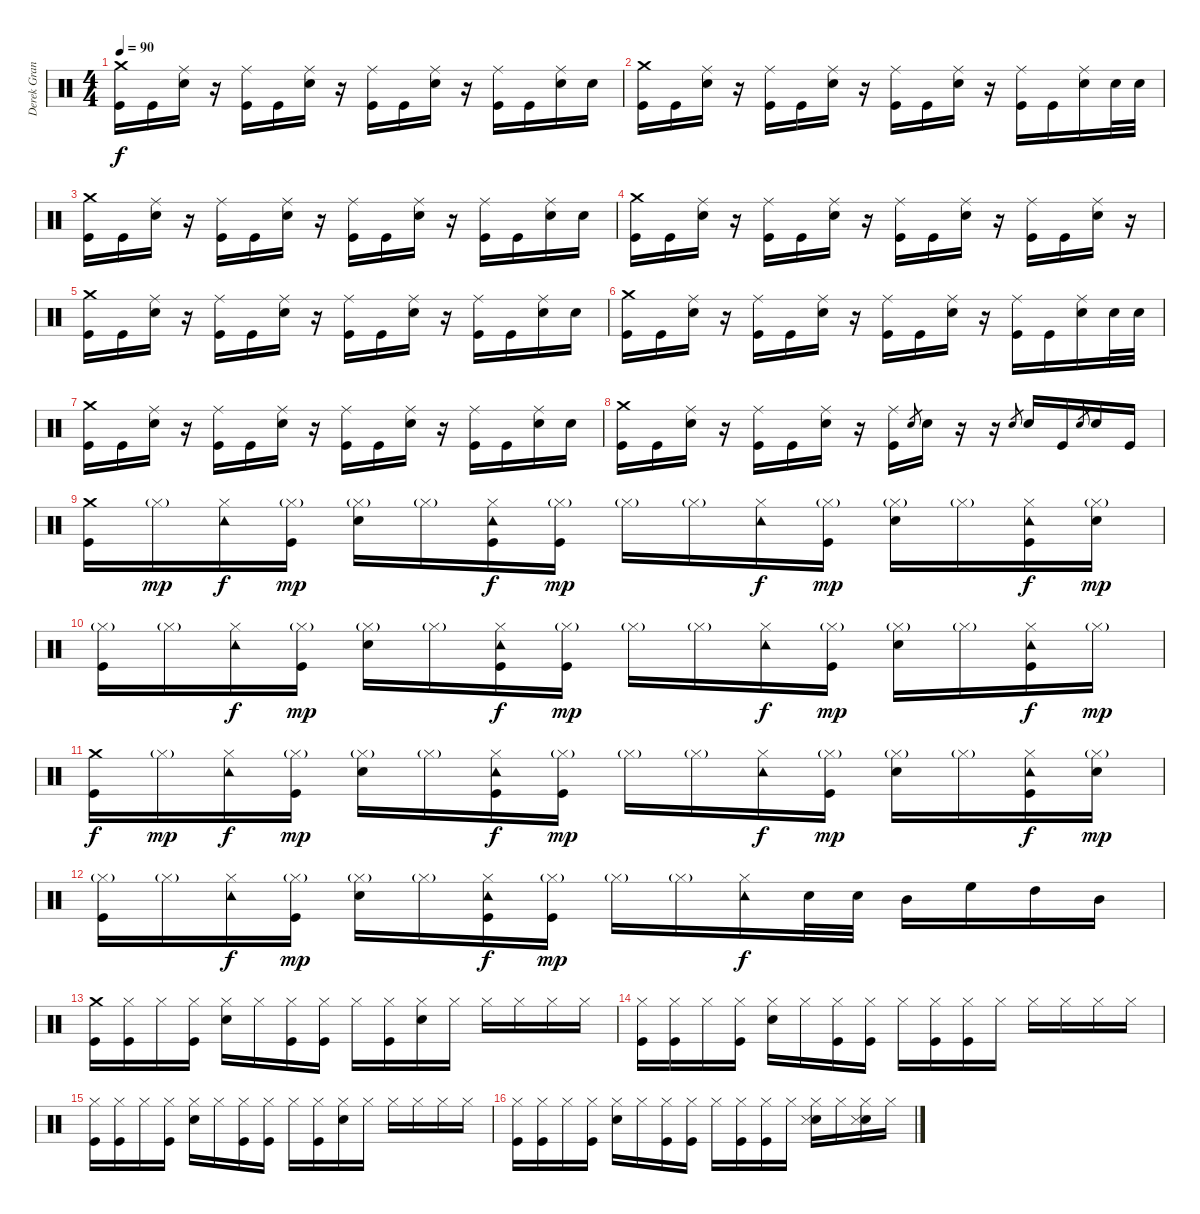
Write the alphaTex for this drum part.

\track ("Derek Grant" "Derek Gran") {instrument percussion}
\staff {score}
\articulation defaults
\ts (4 4)
\tempo 90
\clef neutral
\ks c
("Crash medium (hit)" "Kick (hit)").16{dy f} "Kick (hit)".16 ("Ride (middle)" "Electric Snare (hit)").16 r.16 ("Ride (middle)" "Kick (hit)").16 "Kick (hit)".16 ("Ride (middle)" "Electric Snare (hit)").16 r.16 ("Ride (middle)" "Kick (hit)").16 "Kick (hit)".16 ("Ride (middle)" "Electric Snare (hit)").16 r.16 ("Ride (middle)" "Kick (hit)").16 "Kick (hit)".16 ("Ride (middle)" "Electric Snare (hit)").16 "Electric Snare (hit)".16 |
("Crash medium (hit)" "Kick (hit)").16 "Kick (hit)".16 ("Ride (middle)" "Electric Snare (hit)").16 r.16 ("Ride (middle)" "Kick (hit)").16 "Kick (hit)".16 ("Ride (middle)" "Electric Snare (hit)").16 r.16 ("Ride (middle)" "Kick (hit)").16 "Kick (hit)".16 ("Ride (middle)" "Electric Snare (hit)").16 r.16 ("Ride (middle)" "Kick (hit)").16 "Kick (hit)".16 ("Ride (middle)" "Electric Snare (hit)").16 "Electric Snare (hit)".32 "Electric Snare (hit)".32 |
("Crash medium (hit)" "Kick (hit)").16 "Kick (hit)".16 ("Ride (middle)" "Electric Snare (hit)").16 r.16 ("Ride (middle)" "Kick (hit)").16 "Kick (hit)".16 ("Ride (middle)" "Electric Snare (hit)").16 r.16 ("Ride (middle)" "Kick (hit)").16 "Kick (hit)".16 ("Ride (middle)" "Electric Snare (hit)").16 r.16 ("Ride (middle)" "Kick (hit)").16 "Kick (hit)".16 ("Ride (middle)" "Electric Snare (hit)").16 "Electric Snare (hit)".16 |
("Crash medium (hit)" "Kick (hit)").16 "Kick (hit)".16 ("Ride (middle)" "Electric Snare (hit)").16 r.16 ("Ride (middle)" "Kick (hit)").16 "Kick (hit)".16 ("Ride (middle)" "Electric Snare (hit)").16 r.16 ("Ride (middle)" "Kick (hit)").16 "Kick (hit)".16 ("Ride (middle)" "Electric Snare (hit)").16 r.16 ("Ride (middle)" "Kick (hit)").16 "Kick (hit)".16 ("Ride (middle)" "Electric Snare (hit)").16 r.16 |
("Crash medium (hit)" "Kick (hit)").16 "Kick (hit)".16 ("Ride (middle)" "Electric Snare (hit)").16 r.16 ("Ride (middle)" "Kick (hit)").16 "Kick (hit)".16 ("Ride (middle)" "Electric Snare (hit)").16 r.16 ("Ride (middle)" "Kick (hit)").16 "Kick (hit)".16 ("Ride (middle)" "Electric Snare (hit)").16 r.16 ("Ride (middle)" "Kick (hit)").16 "Kick (hit)".16 ("Ride (middle)" "Electric Snare (hit)").16 "Electric Snare (hit)".16 |
("Crash medium (hit)" "Kick (hit)").16 "Kick (hit)".16 ("Ride (middle)" "Electric Snare (hit)").16 r.16 ("Ride (middle)" "Kick (hit)").16 "Kick (hit)".16 ("Ride (middle)" "Electric Snare (hit)").16 r.16 ("Ride (middle)" "Kick (hit)").16 "Kick (hit)".16 ("Ride (middle)" "Electric Snare (hit)").16 r.16 ("Ride (middle)" "Kick (hit)").16 "Kick (hit)".16 ("Ride (middle)" "Electric Snare (hit)").16 "Electric Snare (hit)".32 "Electric Snare (hit)".32 |
("Crash medium (hit)" "Kick (hit)").16 "Kick (hit)".16 ("Ride (middle)" "Electric Snare (hit)").16 r.16 ("Ride (middle)" "Kick (hit)").16 "Kick (hit)".16 ("Ride (middle)" "Electric Snare (hit)").16 r.16 ("Ride (middle)" "Kick (hit)").16 "Kick (hit)".16 ("Ride (middle)" "Electric Snare (hit)").16 r.16 ("Ride (middle)" "Kick (hit)").16 "Kick (hit)".16 ("Ride (middle)" "Electric Snare (hit)").16 "Electric Snare (hit)".16 |
("Crash medium (hit)" "Kick (hit)").16 "Kick (hit)".16 ("Ride (middle)" "Electric Snare (hit)").16 r.16 ("Ride (middle)" "Kick (hit)").16 "Kick (hit)".16 ("Ride (middle)" "Electric Snare (hit)").16 r.16 ("Ride (middle)" "Kick (hit)").16 "Electric Snare (hit)".8{gr} "Electric Snare (hit)".16 r.16 r.16 "Electric Snare (hit)".8{gr} "Electric Snare (hit)".16 "Kick (hit)".16 "Electric Snare (hit)".8{gr} "Electric Snare (hit)".16 "Kick (hit)".16 |
("Crash medium (hit)" "Kick (hit)").16 "Hi-Hat (closed)"{g}.16{dy mp} ("Tambourine (hit)" "Hi-Hat (closed)").16{dy f} ("Hi-Hat (closed)"{g} "Kick (hit)").16{dy mp} ("Hi-Hat (closed)"{g} "Electric Snare (hit)").16 "Hi-Hat (closed)"{g}.16 ("Tambourine (hit)" "Hi-Hat (closed)" "Kick (hit)").16{dy f} ("Hi-Hat (closed)"{g} "Kick (hit)").16{dy mp} "Hi-Hat (closed)"{g}.16 "Hi-Hat (closed)"{g}.16 ("Tambourine (hit)" "Hi-Hat (closed)").16{dy f} ("Hi-Hat (closed)"{g} "Kick (hit)").16{dy mp} ("Hi-Hat (closed)"{g} "Electric Snare (hit)").16 "Hi-Hat (closed)"{g}.16 ("Tambourine (hit)" "Hi-Hat (closed)" "Kick (hit)").16{dy f} ("Hi-Hat (closed)"{g} "Electric Snare (hit)").16{dy mp} |
("Hi-Hat (closed)"{g} "Kick (hit)").16 "Hi-Hat (closed)"{g}.16 ("Tambourine (hit)" "Hi-Hat (closed)").16{dy f} ("Hi-Hat (closed)"{g} "Kick (hit)").16{dy mp} ("Hi-Hat (closed)"{g} "Electric Snare (hit)").16 "Hi-Hat (closed)"{g}.16 ("Tambourine (hit)" "Hi-Hat (closed)" "Kick (hit)").16{dy f} ("Hi-Hat (closed)"{g} "Kick (hit)").16{dy mp} "Hi-Hat (closed)"{g}.16 "Hi-Hat (closed)"{g}.16 ("Tambourine (hit)" "Hi-Hat (closed)").16{dy f} ("Hi-Hat (closed)"{g} "Kick (hit)").16{dy mp} ("Hi-Hat (closed)"{g} "Electric Snare (hit)").16 "Hi-Hat (closed)"{g}.16 ("Tambourine (hit)" "Hi-Hat (closed)" "Kick (hit)").16{dy f} "Hi-Hat (closed)"{g}.16{dy mp} |
("Crash medium (hit)" "Kick (hit)").16{dy f} "Hi-Hat (closed)"{g}.16{dy mp} ("Tambourine (hit)" "Hi-Hat (closed)").16{dy f} ("Hi-Hat (closed)"{g} "Kick (hit)").16{dy mp} ("Hi-Hat (closed)"{g} "Electric Snare (hit)").16 "Hi-Hat (closed)"{g}.16 ("Tambourine (hit)" "Hi-Hat (closed)" "Kick (hit)").16{dy f} ("Hi-Hat (closed)"{g} "Kick (hit)").16{dy mp} "Hi-Hat (closed)"{g}.16 "Hi-Hat (closed)"{g}.16 ("Tambourine (hit)" "Hi-Hat (closed)").16{dy f} ("Hi-Hat (closed)"{g} "Kick (hit)").16{dy mp} ("Hi-Hat (closed)"{g} "Electric Snare (hit)").16 "Hi-Hat (closed)"{g}.16 ("Tambourine (hit)" "Hi-Hat (closed)" "Kick (hit)").16{dy f} ("Hi-Hat (closed)"{g} "Electric Snare (hit)").16{dy mp} |
("Hi-Hat (closed)"{g} "Kick (hit)").16 "Hi-Hat (closed)"{g}.16 ("Tambourine (hit)" "Hi-Hat (closed)").16{dy f} ("Hi-Hat (closed)"{g} "Kick (hit)").16{dy mp} ("Hi-Hat (closed)"{g} "Electric Snare (hit)").16 "Hi-Hat (closed)"{g}.16 ("Tambourine (hit)" "Hi-Hat (closed)" "Kick (hit)").16{dy f} ("Hi-Hat (closed)"{g} "Kick (hit)").16{dy mp} "Hi-Hat (closed)"{g}.16 "Hi-Hat (closed)"{g}.16 ("Tambourine (hit)" "Hi-Hat (closed)").16{dy f} "Electric Snare (hit)".32 "Electric Snare (hit)".32 "Mid Tom (hit)".16 "High Floor Tom (hit)".16 "High Tom (hit)".16 "Mid Tom (hit)".16 |
("Crash medium (hit)" "Kick (hit)").16 ("Hi-Hat (closed)" "Kick (hit)").16 "Hi-Hat (closed)".16 ("Hi-Hat (closed)" "Kick (hit)").16 ("Hi-Hat (closed)" "Electric Snare (hit)").16 "Hi-Hat (closed)".16 ("Hi-Hat (closed)" "Kick (hit)").16 ("Hi-Hat (closed)" "Kick (hit)").16 "Hi-Hat (closed)".16 ("Hi-Hat (closed)" "Kick (hit)").16 ("Hi-Hat (closed)" "Electric Snare (hit)").16 "Hi-Hat (closed)".16 "Hi-Hat (closed)".16 "Hi-Hat (closed)".16 "Hi-Hat (closed)".16 "Hi-Hat (closed)".16 |
("Hi-Hat (closed)" "Kick (hit)").16 ("Hi-Hat (closed)" "Kick (hit)").16 "Hi-Hat (closed)".16 ("Hi-Hat (closed)" "Kick (hit)").16 ("Hi-Hat (closed)" "Electric Snare (hit)").16 "Hi-Hat (closed)".16 ("Hi-Hat (closed)" "Kick (hit)").16 ("Hi-Hat (closed)" "Kick (hit)").16 "Hi-Hat (closed)".16 ("Hi-Hat (closed)" "Kick (hit)").16 ("Hi-Hat (closed)" "Kick (hit)").16 "Hi-Hat (closed)".16 "Hi-Hat (closed)".16 "Hi-Hat (closed)".16 "Hi-Hat (closed)".16 "Hi-Hat (closed)".16 |
("Hi-Hat (closed)" "Kick (hit)").16 ("Hi-Hat (closed)" "Kick (hit)").16 "Hi-Hat (closed)".16 ("Hi-Hat (closed)" "Kick (hit)").16 ("Hi-Hat (closed)" "Electric Snare (hit)").16 "Hi-Hat (closed)".16 ("Hi-Hat (closed)" "Kick (hit)").16 ("Hi-Hat (closed)" "Kick (hit)").16 "Hi-Hat (closed)".16 ("Hi-Hat (closed)" "Kick (hit)").16 ("Hi-Hat (closed)" "Electric Snare (hit)").16 "Hi-Hat (closed)".16 "Hi-Hat (closed)".16 "Hi-Hat (closed)".16 "Hi-Hat (closed)".16 "Hi-Hat (closed)".16 |
("Hi-Hat (closed)" "Kick (hit)").16 ("Hi-Hat (closed)" "Kick (hit)").16 "Hi-Hat (closed)".16 ("Hi-Hat (closed)" "Kick (hit)").16 ("Hi-Hat (closed)" "Electric Snare (hit)").16 "Hi-Hat (closed)".16 ("Hi-Hat (closed)" "Kick (hit)").16 ("Hi-Hat (closed)" "Kick (hit)").16 "Hi-Hat (closed)".16 ("Hi-Hat (closed)" "Kick (hit)").16 ("Hi-Hat (closed)" "Kick (hit)").16 "Hi-Hat (closed)".16 ("Hand Clap (hit)" "Hi-Hat (closed)" "Metronome (hit)").16 "Hi-Hat (closed)".16 ("Hand Clap (hit)" "Hi-Hat (closed)" "Metronome (hit)").16 "Hi-Hat (closed)".16
